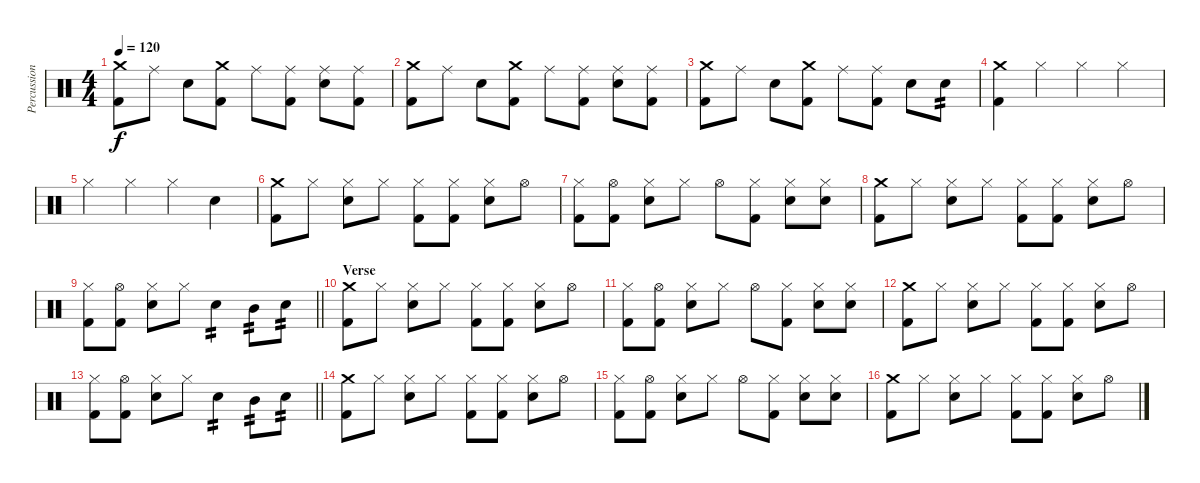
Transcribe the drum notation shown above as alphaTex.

\track ("Percussion" "Percussion") {instrument percussion}
\staff {score}
\articulation defaults
\ts (4 4)
\tempo 120
\clef neutral
\ks c
("Crash medium (hit)" "Kick (hit) 2").8{dy f} "Ride (middle)".8 "Snare (hit) 2".8 ("Crash medium (hit)" "Kick (hit) 2").8 "Ride (middle)".8 ("Ride (middle)" "Kick (hit) 2").8 ("Ride (middle)" "Snare (hit) 2").8 ("Ride (middle)" "Kick (hit) 2").8 |
("Crash medium (hit)" "Kick (hit) 2").8 "Ride (middle)".8 "Snare (hit) 2".8 ("Crash medium (hit)" "Kick (hit) 2").8 "Ride (middle)".8 ("Ride (middle)" "Kick (hit) 2").8 ("Ride (middle)" "Snare (hit) 2").8 ("Ride (middle)" "Kick (hit) 2").8 |
("Crash medium (hit)" "Kick (hit) 2").8 "Ride (middle)".8 "Snare (hit) 2".8 ("Crash medium (hit)" "Kick (hit) 2").8 "Ride (middle)".8 ("Ride (middle)" "Kick (hit) 2").8 "Snare (hit) 2".8 "Snare (hit) 2".8{tp 2} |
("Crash medium (hit)" "Kick (hit) 2").4 "Hi-Hat (closed)".4 "Hi-Hat (closed)".4 "Hi-Hat (closed)".4 |
"Hi-Hat (closed)".4 "Hi-Hat (closed)".4 "Hi-Hat (closed)".4 "Snare (hit) 2".4 |
("Crash medium (hit)" "Kick (hit) 2").8 "Hi-Hat (closed)".8 ("Hi-Hat (closed)" "Snare (hit) 2").8 "Hi-Hat (closed)".8 ("Hi-Hat (closed)" "Kick (hit) 2").8 ("Hi-Hat (closed)" "Kick (hit) 2").8 ("Hi-Hat (closed)" "Snare (hit) 2").8 "Hi-Hat (open)".8 |
("Hi-Hat (closed)" "Kick (hit) 2").8 ("Hi-Hat (open)" "Kick (hit) 2").8 ("Hi-Hat (closed)" "Snare (hit) 2").8 "Hi-Hat (closed)".8 "Hi-Hat (open)".8 ("Hi-Hat (closed)" "Kick (hit) 2").8 ("Hi-Hat (closed)" "Snare (hit) 2").8 ("Hi-Hat (closed)" "Snare (hit) 2").8 |
("Crash medium (hit)" "Kick (hit) 2").8 "Hi-Hat (closed)".8 ("Hi-Hat (closed)" "Snare (hit) 2").8 "Hi-Hat (closed)".8 ("Hi-Hat (closed)" "Kick (hit) 2").8 ("Hi-Hat (closed)" "Kick (hit) 2").8 ("Hi-Hat (closed)" "Snare (hit) 2").8 "Hi-Hat (open)".8 |
\barLineRight lightlight
("Hi-Hat (closed)" "Kick (hit) 2").8 ("Hi-Hat (open)" "Kick (hit) 2").8 ("Hi-Hat (closed)" "Snare (hit) 2").8 "Hi-Hat (closed)".8 "Snare (hit) 2".4{tp 2} "Mid Tom (hit)".8{tp 2} "Snare (hit) 2".8{tp 2} |
\section ("" "Verse")
("Crash medium (hit)" "Kick (hit) 2").8 "Hi-Hat (closed)".8 ("Hi-Hat (closed)" "Snare (hit) 2").8 "Hi-Hat (closed)".8 ("Hi-Hat (closed)" "Kick (hit) 2").8 ("Hi-Hat (closed)" "Kick (hit) 2").8 ("Hi-Hat (closed)" "Snare (hit) 2").8 "Hi-Hat (open)".8 |
("Hi-Hat (closed)" "Kick (hit) 2").8 ("Hi-Hat (open)" "Kick (hit) 2").8 ("Hi-Hat (closed)" "Snare (hit) 2").8 "Hi-Hat (closed)".8 "Hi-Hat (open)".8 ("Hi-Hat (closed)" "Kick (hit) 2").8 ("Hi-Hat (closed)" "Snare (hit) 2").8 ("Hi-Hat (closed)" "Snare (hit) 2").8 |
("Crash medium (hit)" "Kick (hit) 2").8 "Hi-Hat (closed)".8 ("Hi-Hat (closed)" "Snare (hit) 2").8 "Hi-Hat (closed)".8 ("Hi-Hat (closed)" "Kick (hit) 2").8 ("Hi-Hat (closed)" "Kick (hit) 2").8 ("Hi-Hat (closed)" "Snare (hit) 2").8 "Hi-Hat (open)".8 |
\barLineRight lightlight
("Hi-Hat (closed)" "Kick (hit) 2").8 ("Hi-Hat (open)" "Kick (hit) 2").8 ("Hi-Hat (closed)" "Snare (hit) 2").8 "Hi-Hat (closed)".8 "Snare (hit) 2".4{tp 2} "Mid Tom (hit)".8{tp 2} "Snare (hit) 2".8{tp 2} |
("Crash medium (hit)" "Kick (hit) 2").8 "Hi-Hat (closed)".8 ("Hi-Hat (closed)" "Snare (hit) 2").8 "Hi-Hat (closed)".8 ("Hi-Hat (closed)" "Kick (hit) 2").8 ("Hi-Hat (closed)" "Kick (hit) 2").8 ("Hi-Hat (closed)" "Snare (hit) 2").8 "Hi-Hat (open)".8 |
("Hi-Hat (closed)" "Kick (hit) 2").8 ("Hi-Hat (open)" "Kick (hit) 2").8 ("Hi-Hat (closed)" "Snare (hit) 2").8 "Hi-Hat (closed)".8 "Hi-Hat (open)".8 ("Hi-Hat (closed)" "Kick (hit) 2").8 ("Hi-Hat (closed)" "Snare (hit) 2").8 ("Hi-Hat (closed)" "Snare (hit) 2").8 |
("Crash medium (hit)" "Kick (hit) 2").8 "Hi-Hat (closed)".8 ("Hi-Hat (closed)" "Snare (hit) 2").8 "Hi-Hat (closed)".8 ("Hi-Hat (closed)" "Kick (hit) 2").8 ("Hi-Hat (closed)" "Kick (hit) 2").8 ("Hi-Hat (closed)" "Snare (hit) 2").8 "Hi-Hat (open)".8
